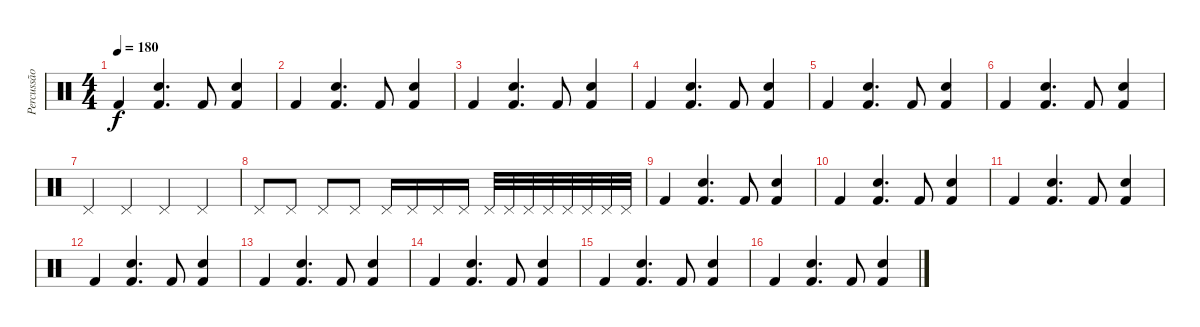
\track ("Percussão" "Percussão") {instrument percussion}
\staff {score}
\articulation defaults
\ts (4 4)
\tempo 180
\clef neutral
\ks c "Kick (hit) 2".4{dy f}
("Kick (hit) 2" "Snare (hit) 2").4{d} "Kick (hit) 2".8 ("Kick (hit) 2" "Snare (hit) 2").4 |
"Kick (hit) 2".4 ("Kick (hit) 2" "Snare (hit) 2").4{d} "Kick (hit) 2".8 ("Kick (hit) 2" "Snare (hit) 2").4 |
"Kick (hit) 2".4 ("Kick (hit) 2" "Snare (hit) 2").4{d} "Kick (hit) 2".8 ("Kick (hit) 2" "Snare (hit) 2").4 |
"Kick (hit) 2".4 ("Kick (hit) 2" "Snare (hit) 2").4{d} "Kick (hit) 2".8 ("Kick (hit) 2" "Snare (hit) 2").4 |
"Kick (hit) 2".4 ("Kick (hit) 2" "Snare (hit) 2").4{d} "Kick (hit) 2".8 ("Kick (hit) 2" "Snare (hit) 2").4 |
"Kick (hit) 2".4 ("Kick (hit) 2" "Snare (hit) 2").4{d} "Kick (hit) 2".8 ("Kick (hit) 2" "Snare (hit) 2").4 |
"Pedal Hi-Hat (hit)".4 "Pedal Hi-Hat (hit)".4 "Pedal Hi-Hat (hit)".4 "Pedal Hi-Hat (hit)".4 |
"Pedal Hi-Hat (hit)".8 "Pedal Hi-Hat (hit)".8 "Pedal Hi-Hat (hit)".8 "Pedal Hi-Hat (hit)".8 "Pedal Hi-Hat (hit)".16 "Pedal Hi-Hat (hit)".16 "Pedal Hi-Hat (hit)".16 "Pedal Hi-Hat (hit)".16 "Pedal Hi-Hat (hit)".32 "Pedal Hi-Hat (hit)".32 "Pedal Hi-Hat (hit)".32 "Pedal Hi-Hat (hit)".32 "Pedal Hi-Hat (hit)".32 "Pedal Hi-Hat (hit)".32 "Pedal Hi-Hat (hit)".32 "Pedal Hi-Hat (hit)".32 |
"Kick (hit) 2".4 ("Kick (hit) 2" "Snare (hit) 2").4{d} "Kick (hit) 2".8 ("Kick (hit) 2" "Snare (hit) 2").4 |
"Kick (hit) 2".4 ("Kick (hit) 2" "Snare (hit) 2").4{d} "Kick (hit) 2".8 ("Kick (hit) 2" "Snare (hit) 2").4 |
"Kick (hit) 2".4 ("Kick (hit) 2" "Snare (hit) 2").4{d} "Kick (hit) 2".8 ("Kick (hit) 2" "Snare (hit) 2").4 |
"Kick (hit) 2".4 ("Kick (hit) 2" "Snare (hit) 2").4{d} "Kick (hit) 2".8 ("Kick (hit) 2" "Snare (hit) 2").4 |
"Kick (hit) 2".4 ("Kick (hit) 2" "Snare (hit) 2").4{d} "Kick (hit) 2".8 ("Kick (hit) 2" "Snare (hit) 2").4 |
"Kick (hit) 2".4 ("Kick (hit) 2" "Snare (hit) 2").4{d} "Kick (hit) 2".8 ("Kick (hit) 2" "Snare (hit) 2").4 |
"Kick (hit) 2".4 ("Kick (hit) 2" "Snare (hit) 2").4{d} "Kick (hit) 2".8 ("Kick (hit) 2" "Snare (hit) 2").4 |
"Kick (hit) 2".4 ("Kick (hit) 2" "Snare (hit) 2").4{d} "Kick (hit) 2".8 ("Kick (hit) 2" "Snare (hit) 2").4
